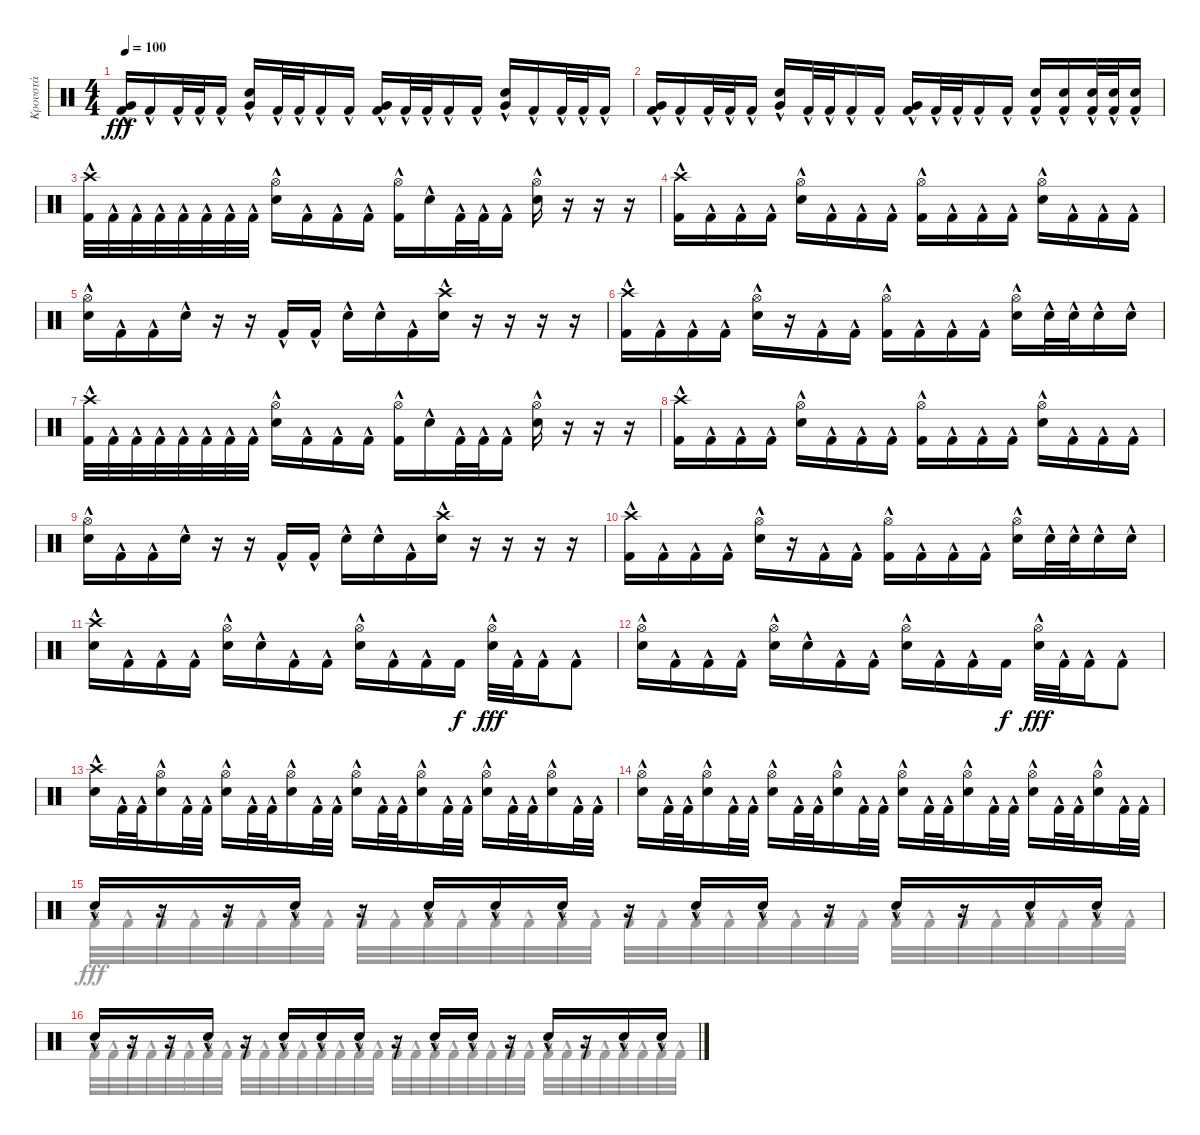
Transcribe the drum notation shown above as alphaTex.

\track ("Κρουστά" "Κρουστά") {instrument percussion}
\staff {score}
\articulation defaults
\voice
\ts (4 4)
\tempo 100
\clef neutral
\ks c
("Kick (hit) 2"{hac} "Very Low Tom (hit)").16{dy fff} "Kick (hit) 2"{hac}.16 "Kick (hit) 2"{hac}.32 "Kick (hit) 2"{hac}.32 "Kick (hit) 2"{hac}.16 ("Electric Snare (hit)"{hac} "Very Low Tom (hit)").16 "Kick (hit) 2"{hac}.32 "Kick (hit) 2"{hac}.32 "Kick (hit) 2"{hac}.16 "Kick (hit) 2"{hac}.16 ("Kick (hit) 2"{hac} "Very Low Tom (hit)").16 "Kick (hit) 2"{hac}.32 "Kick (hit) 2"{hac}.32 "Kick (hit) 2"{hac}.16 "Kick (hit) 2"{hac}.16 ("Electric Snare (hit)"{hac} "Very Low Tom (hit)").16 "Kick (hit) 2"{hac}.16 "Kick (hit) 2"{hac}.32 "Kick (hit) 2"{hac}.32 "Kick (hit) 2"{hac}.16 |
("Kick (hit) 2"{hac} "Very Low Tom (hit)").16 "Kick (hit) 2"{hac}.16 "Kick (hit) 2"{hac}.32 "Kick (hit) 2"{hac}.32 "Kick (hit) 2"{hac}.16 ("Electric Snare (hit)"{hac} "Very Low Tom (hit)").16 "Kick (hit) 2"{hac}.32 "Kick (hit) 2"{hac}.32 "Kick (hit) 2"{hac}.16 "Kick (hit) 2"{hac}.16 ("Kick (hit) 2"{hac} "Very Low Tom (hit)").16 "Kick (hit) 2"{hac}.32 "Kick (hit) 2"{hac}.32 "Kick (hit) 2"{hac}.16 "Kick (hit) 2"{hac}.16 ("Electric Snare (hit)"{hac} "Kick (hit) 2"{hac}).16 ("Kick (hit) 2"{hac} "Electric Snare (hit)"{hac}).16 ("Kick (hit) 2"{hac} "Electric Snare (hit)"{hac}).32 ("Kick (hit) 2"{hac} "Electric Snare (hit)"{hac}).32 ("Kick (hit) 2"{hac} "Electric Snare (hit)"{hac}).16 |
("Kick (hit) 2"{hac} "Crash high (hit)").32 "Kick (hit) 2"{hac}.32 "Kick (hit) 2"{hac}.32 "Kick (hit) 2"{hac}.32 "Kick (hit) 2"{hac}.32 "Kick (hit) 2"{hac}.32 "Kick (hit) 2"{hac}.32 "Kick (hit) 2"{hac}.32 ("Electric Snare (hit)"{hac} "Hi-Hat (open)").16 "Kick (hit) 2"{hac}.16 "Kick (hit) 2"{hac}.16 "Kick (hit) 2"{hac}.16 ("Kick (hit) 2"{hac} "Hi-Hat (open)").16 "Electric Snare (hit)"{hac}.16 "Kick (hit) 2"{hac}.32 "Kick (hit) 2"{hac}.32 "Kick (hit) 2"{hac}.16 ("Electric Snare (hit)"{hac} "Hi-Hat (open)").16 r.16 r.16 r.16 |
("Kick (hit) 2"{hac} "Crash high (hit)").16 "Kick (hit) 2"{hac}.16 "Kick (hit) 2"{hac}.16 "Kick (hit) 2"{hac}.16 ("Electric Snare (hit)"{hac} "Hi-Hat (open)").16 "Kick (hit) 2"{hac}.16 "Kick (hit) 2"{hac}.16 "Kick (hit) 2"{hac}.16 ("Kick (hit) 2"{hac} "Hi-Hat (open)").16 "Kick (hit) 2"{hac}.16 "Kick (hit) 2"{hac}.16 "Kick (hit) 2"{hac}.16 ("Electric Snare (hit)"{hac} "Hi-Hat (open)").16 "Kick (hit) 2"{hac}.16 "Kick (hit) 2"{hac}.16 "Kick (hit) 2"{hac}.16 |
("Hi-Hat (open)" "Electric Snare (hit)"{hac}).16 "Kick (hit) 2"{hac}.16 "Kick (hit) 2"{hac}.16 "Electric Snare (hit)"{hac}.16 r.16 r.16 "Kick (hit) 2"{hac}.16 "Kick (hit) 2"{hac}.16 "Electric Snare (hit)"{hac}.16 "Electric Snare (hit)"{hac}.16 "Kick (hit) 2"{hac}.16 ("Crash high (hit)" "Electric Snare (hit)"{hac}).16 r.16 r.16 r.16 r.16 |
("Kick (hit) 2"{hac} "Crash high (hit)").16 "Kick (hit) 2"{hac}.16 "Kick (hit) 2"{hac}.16 "Kick (hit) 2"{hac}.16 ("Electric Snare (hit)"{hac} "Hi-Hat (open)").16 r.16 "Kick (hit) 2"{hac}.16 "Kick (hit) 2"{hac}.16 ("Kick (hit) 2"{hac} "Hi-Hat (open)").16 "Kick (hit) 2"{hac}.16 "Kick (hit) 2"{hac}.16 "Kick (hit) 2"{hac}.16 ("Electric Snare (hit)"{hac} "Hi-Hat (open)").16 "Electric Snare (hit)"{hac}.32 "Electric Snare (hit)"{hac}.32 "Electric Snare (hit)"{hac}.16 "Electric Snare (hit)"{hac}.16 |
("Kick (hit) 2"{hac} "Crash high (hit)").32 "Kick (hit) 2"{hac}.32 "Kick (hit) 2"{hac}.32 "Kick (hit) 2"{hac}.32 "Kick (hit) 2"{hac}.32 "Kick (hit) 2"{hac}.32 "Kick (hit) 2"{hac}.32 "Kick (hit) 2"{hac}.32 ("Electric Snare (hit)"{hac} "Hi-Hat (open)").16 "Kick (hit) 2"{hac}.16 "Kick (hit) 2"{hac}.16 "Kick (hit) 2"{hac}.16 ("Kick (hit) 2"{hac} "Hi-Hat (open)").16 "Electric Snare (hit)"{hac}.16 "Kick (hit) 2"{hac}.32 "Kick (hit) 2"{hac}.32 "Kick (hit) 2"{hac}.16 ("Electric Snare (hit)"{hac} "Hi-Hat (open)").16 r.16 r.16 r.16 |
("Kick (hit) 2"{hac} "Crash high (hit)").16 "Kick (hit) 2"{hac}.16 "Kick (hit) 2"{hac}.16 "Kick (hit) 2"{hac}.16 ("Electric Snare (hit)"{hac} "Hi-Hat (open)").16 "Kick (hit) 2"{hac}.16 "Kick (hit) 2"{hac}.16 "Kick (hit) 2"{hac}.16 ("Kick (hit) 2"{hac} "Hi-Hat (open)").16 "Kick (hit) 2"{hac}.16 "Kick (hit) 2"{hac}.16 "Kick (hit) 2"{hac}.16 ("Electric Snare (hit)"{hac} "Hi-Hat (open)").16 "Kick (hit) 2"{hac}.16 "Kick (hit) 2"{hac}.16 "Kick (hit) 2"{hac}.16 |
("Hi-Hat (open)" "Electric Snare (hit)"{hac}).16 "Kick (hit) 2"{hac}.16 "Kick (hit) 2"{hac}.16 "Electric Snare (hit)"{hac}.16 r.16 r.16 "Kick (hit) 2"{hac}.16 "Kick (hit) 2"{hac}.16 "Electric Snare (hit)"{hac}.16 "Electric Snare (hit)"{hac}.16 "Kick (hit) 2"{hac}.16 ("Crash high (hit)" "Electric Snare (hit)"{hac}).16 r.16 r.16 r.16 r.16 |
("Kick (hit) 2"{hac} "Crash high (hit)").16 "Kick (hit) 2"{hac}.16 "Kick (hit) 2"{hac}.16 "Kick (hit) 2"{hac}.16 ("Electric Snare (hit)"{hac} "Hi-Hat (open)").16 r.16 "Kick (hit) 2"{hac}.16 "Kick (hit) 2"{hac}.16 ("Kick (hit) 2"{hac} "Hi-Hat (open)").16 "Kick (hit) 2"{hac}.16 "Kick (hit) 2"{hac}.16 "Kick (hit) 2"{hac}.16 ("Electric Snare (hit)"{hac} "Hi-Hat (open)").16 "Electric Snare (hit)"{hac}.32 "Electric Snare (hit)"{hac}.32 "Electric Snare (hit)"{hac}.16 "Electric Snare (hit)"{hac}.16 |
("Electric Snare (hit)"{hac} "Crash high (hit)").16 "Kick (hit) 2"{hac}.16 "Kick (hit) 2"{hac}.16 "Kick (hit) 2"{hac}.16 ("Electric Snare (hit)"{hac} "Hi-Hat (open)").16 "Electric Snare (hit)"{hac}.16 "Kick (hit) 2"{hac}.16 "Kick (hit) 2"{hac}.16 ("Electric Snare (hit)"{hac} "Hi-Hat (open)").16 "Kick (hit) 2"{hac}.16 "Kick (hit) 2"{hac}.16 "Kick (hit) 2".16{dy f} ("Electric Snare (hit)"{hac} "Hi-Hat (open)").32{dy fff} "Kick (hit) 2"{hac}.32 "Kick (hit) 2"{hac}.16 "Kick (hit) 2"{hac}.8 |
("Electric Snare (hit)"{hac} "Hi-Hat (open)").16 "Kick (hit) 2"{hac}.16 "Kick (hit) 2"{hac}.16 "Kick (hit) 2"{hac}.16 ("Electric Snare (hit)"{hac} "Hi-Hat (open)").16 "Electric Snare (hit)"{hac}.16 "Kick (hit) 2"{hac}.16 "Kick (hit) 2"{hac}.16 ("Electric Snare (hit)"{hac} "Hi-Hat (open)").16 "Kick (hit) 2"{hac}.16 "Kick (hit) 2"{hac}.16 "Kick (hit) 2".16{dy f} ("Electric Snare (hit)"{hac} "Hi-Hat (open)").32{dy fff} "Kick (hit) 2"{hac}.32 "Kick (hit) 2"{hac}.16 "Kick (hit) 2"{hac}.8 |
("Electric Snare (hit)"{hac} "Crash high (hit)").16 "Kick (hit) 2"{hac}.32 "Kick (hit) 2"{hac}.32 ("Electric Snare (hit)"{hac} "Hi-Hat (open)").16 "Kick (hit) 2"{hac}.32 "Kick (hit) 2"{hac}.32 ("Electric Snare (hit)"{hac} "Hi-Hat (open)").16 "Kick (hit) 2"{hac}.32 "Kick (hit) 2"{hac}.32 ("Electric Snare (hit)"{hac} "Hi-Hat (open)").16 "Kick (hit) 2"{hac}.32 "Kick (hit) 2"{hac}.32 ("Electric Snare (hit)"{hac} "Hi-Hat (open)").16 "Kick (hit) 2"{hac}.32 "Kick (hit) 2"{hac}.32 ("Electric Snare (hit)"{hac} "Hi-Hat (open)").16 "Kick (hit) 2"{hac}.32 "Kick (hit) 2"{hac}.32 ("Electric Snare (hit)"{hac} "Hi-Hat (open)").16 "Kick (hit) 2"{hac}.32 "Kick (hit) 2"{hac}.32 ("Electric Snare (hit)"{hac} "Hi-Hat (open)").16 "Kick (hit) 2"{hac}.32 "Kick (hit) 2"{hac}.32 |
("Electric Snare (hit)"{hac} "Hi-Hat (open)").16 "Kick (hit) 2"{hac}.32 "Kick (hit) 2"{hac}.32 ("Electric Snare (hit)"{hac} "Hi-Hat (open)").16 "Kick (hit) 2"{hac}.32 "Kick (hit) 2"{hac}.32 ("Electric Snare (hit)"{hac} "Hi-Hat (open)").16 "Kick (hit) 2"{hac}.32 "Kick (hit) 2"{hac}.32 ("Electric Snare (hit)"{hac} "Hi-Hat (open)").16 "Kick (hit) 2"{hac}.32 "Kick (hit) 2"{hac}.32 ("Electric Snare (hit)"{hac} "Hi-Hat (open)").16 "Kick (hit) 2"{hac}.32 "Kick (hit) 2"{hac}.32 ("Electric Snare (hit)"{hac} "Hi-Hat (open)").16 "Kick (hit) 2"{hac}.32 "Kick (hit) 2"{hac}.32 ("Electric Snare (hit)"{hac} "Hi-Hat (open)").16 "Kick (hit) 2"{hac}.32 "Kick (hit) 2"{hac}.32 ("Electric Snare (hit)"{hac} "Hi-Hat (open)").16 "Kick (hit) 2"{hac}.32 "Kick (hit) 2"{hac}.32 |
"Electric Snare (hit)"{hac}.16 r.16 r.16 "Electric Snare (hit)"{hac}.16 r.16 "Electric Snare (hit)"{hac}.16 "Electric Snare (hit)"{hac}.16 "Electric Snare (hit)"{hac}.16 r.16 "Electric Snare (hit)"{hac}.16 "Electric Snare (hit)"{hac}.16 r.16 "Electric Snare (hit)"{hac}.16 r.16 "Electric Snare (hit)"{hac}.16 "Electric Snare (hit)"{hac}.16 |
"Electric Snare (hit)"{hac}.16 r.16 r.16 "Electric Snare (hit)"{hac}.16 r.16 "Electric Snare (hit)"{hac}.16 "Electric Snare (hit)"{hac}.16 "Electric Snare (hit)"{hac}.16 r.16 "Electric Snare (hit)"{hac}.16 "Electric Snare (hit)"{hac}.16 r.16 "Electric Snare (hit)"{hac}.16 r.16 "Electric Snare (hit)"{hac}.16 "Electric Snare (hit)"{hac}.16
\voice
\clef neutral
\ottava regular
\simile none
\ks c
|
|
|
|
|
|
|
|
|
|
|
|
|
|
"Kick (hit) 2"{hac}.32 "Kick (hit) 2"{hac}.32 "Kick (hit) 2"{hac}.32 "Kick (hit) 2"{hac}.32 "Kick (hit) 2"{hac}.32 "Kick (hit) 2"{hac}.32 "Kick (hit) 2"{hac}.32 "Kick (hit) 2"{hac}.32 "Kick (hit) 2"{hac}.32 "Kick (hit) 2"{hac}.32 "Kick (hit) 2"{hac}.32 "Kick (hit) 2"{hac}.32 "Kick (hit) 2"{hac}.32 "Kick (hit) 2"{hac}.32 "Kick (hit) 2"{hac}.32 "Kick (hit) 2"{hac}.32 "Kick (hit) 2"{hac}.32 "Kick (hit) 2"{hac}.32 "Kick (hit) 2"{hac}.32 "Kick (hit) 2"{hac}.32 "Kick (hit) 2"{hac}.32 "Kick (hit) 2"{hac}.32 "Kick (hit) 2"{hac}.32 "Kick (hit) 2"{hac}.32 "Kick (hit) 2"{hac}.32 "Kick (hit) 2"{hac}.32 "Kick (hit) 2"{hac}.32 "Kick (hit) 2"{hac}.32 "Kick (hit) 2"{hac}.32 "Kick (hit) 2"{hac}.32 "Kick (hit) 2"{hac}.32 "Kick (hit) 2"{hac}.32 |
"Kick (hit) 2"{hac}.32 "Kick (hit) 2"{hac}.32 "Kick (hit) 2"{hac}.32 "Kick (hit) 2"{hac}.32 "Kick (hit) 2"{hac}.32 "Kick (hit) 2"{hac}.32 "Kick (hit) 2"{hac}.32 "Kick (hit) 2"{hac}.32 "Kick (hit) 2"{hac}.32 "Kick (hit) 2"{hac}.32 "Kick (hit) 2"{hac}.32 "Kick (hit) 2"{hac}.32 "Kick (hit) 2"{hac}.32 "Kick (hit) 2"{hac}.32 "Kick (hit) 2"{hac}.32 "Kick (hit) 2"{hac}.32 "Kick (hit) 2"{hac}.32 "Kick (hit) 2"{hac}.32 "Kick (hit) 2"{hac}.32 "Kick (hit) 2"{hac}.32 "Kick (hit) 2"{hac}.32 "Kick (hit) 2"{hac}.32 "Kick (hit) 2"{hac}.32 "Kick (hit) 2"{hac}.32 "Kick (hit) 2"{hac}.32 "Kick (hit) 2"{hac}.32 "Kick (hit) 2"{hac}.32 "Kick (hit) 2"{hac}.32 "Kick (hit) 2"{hac}.32 "Kick (hit) 2"{hac}.32 "Kick (hit) 2"{hac}.32 "Kick (hit) 2"{hac}.32
